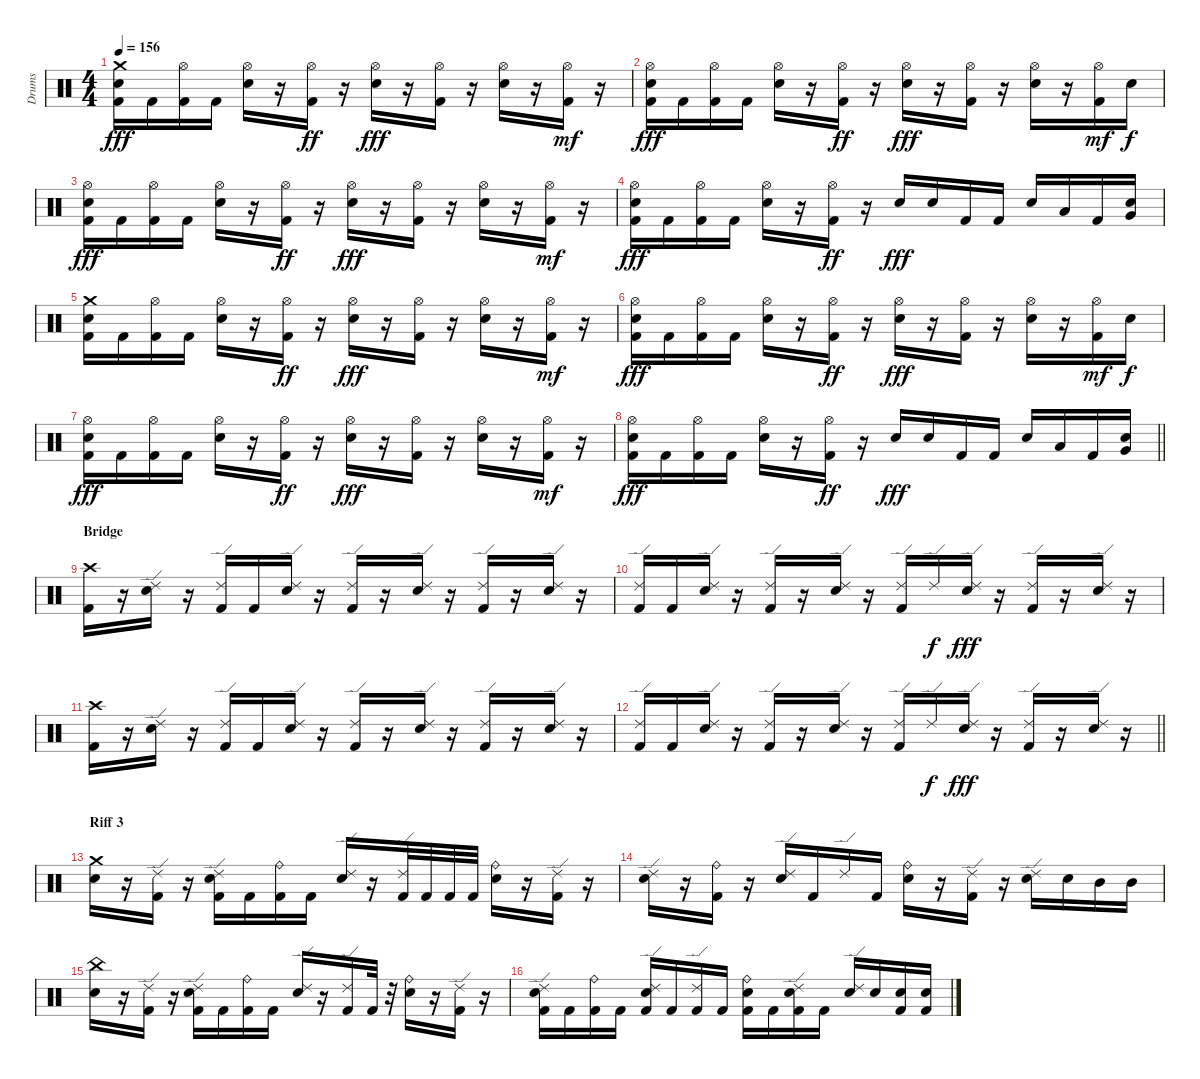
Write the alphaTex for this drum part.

\track ("Drums" "Drums") {instrument percussion}
\staff {score}
\articulation defaults
\ts (4 4)
\tempo 156
\clef neutral
\ks c
("Kick (hit) 2" "Snare (hit) 2" "Crash medium (hit)").16{dy fff} "Kick (hit) 2".16 ("Kick (hit) 2" "Hi-Hat (open)").16 "Kick (hit) 2".16 ("Snare (hit) 2" "Hi-Hat (open)").16 r.16 ("Kick (hit) 2" "Hi-Hat (open)").16{dy ff} r.16 ("Snare (hit) 2" "Hi-Hat (open)").16{dy fff} r.16 ("Kick (hit) 2" "Hi-Hat (open)").16 r.16 ("Snare (hit) 2" "Hi-Hat (open)").16 r.16 ("Kick (hit) 2" "Hi-Hat (open)").16{dy mf} r.16 |
("Kick (hit) 2" "Snare (hit) 2" "Hi-Hat (open)").16{dy fff} "Kick (hit) 2".16 ("Kick (hit) 2" "Hi-Hat (open)").16 "Kick (hit) 2".16 ("Snare (hit) 2" "Hi-Hat (open)").16 r.16 ("Kick (hit) 2" "Hi-Hat (open)").16{dy ff} r.16 ("Snare (hit) 2" "Hi-Hat (open)").16{dy fff} r.16 ("Kick (hit) 2" "Hi-Hat (open)").16 r.16 ("Snare (hit) 2" "Hi-Hat (open)").16 r.16 ("Kick (hit) 2" "Hi-Hat (open)").16{dy mf} "Snare (hit) 2".16{dy f} |
("Kick (hit) 2" "Snare (hit) 2" "Hi-Hat (open)").16{dy fff} "Kick (hit) 2".16 ("Kick (hit) 2" "Hi-Hat (open)").16 "Kick (hit) 2".16 ("Snare (hit) 2" "Hi-Hat (open)").16 r.16 ("Kick (hit) 2" "Hi-Hat (open)").16{dy ff} r.16 ("Snare (hit) 2" "Hi-Hat (open)").16{dy fff} r.16 ("Kick (hit) 2" "Hi-Hat (open)").16 r.16 ("Snare (hit) 2" "Hi-Hat (open)").16 r.16 ("Kick (hit) 2" "Hi-Hat (open)").16{dy mf} r.16 |
("Kick (hit) 2" "Snare (hit) 2" "Hi-Hat (open)").16{dy fff} "Kick (hit) 2".16 ("Kick (hit) 2" "Hi-Hat (open)").16 "Kick (hit) 2".16 ("Snare (hit) 2" "Hi-Hat (open)").16 r.16 ("Kick (hit) 2" "Hi-Hat (open)").16{dy ff} r.16 "Snare (hit) 2".16{dy fff} "Snare (hit) 2".16 "Kick (hit) 2".16 "Kick (hit) 2".16 "Snare (hit) 2".16 "Low Tom (hit)".16 "Kick (hit) 2".16 ("Snare (hit) 2" "Very Low Tom (hit)").16 |
("Kick (hit) 2" "Snare (hit) 2" "Crash medium (hit)").16 "Kick (hit) 2".16 ("Kick (hit) 2" "Hi-Hat (open)").16 "Kick (hit) 2".16 ("Snare (hit) 2" "Hi-Hat (open)").16 r.16 ("Kick (hit) 2" "Hi-Hat (open)").16{dy ff} r.16 ("Snare (hit) 2" "Hi-Hat (open)").16{dy fff} r.16 ("Kick (hit) 2" "Hi-Hat (open)").16 r.16 ("Snare (hit) 2" "Hi-Hat (open)").16 r.16 ("Kick (hit) 2" "Hi-Hat (open)").16{dy mf} r.16 |
("Kick (hit) 2" "Snare (hit) 2" "Hi-Hat (open)").16{dy fff} "Kick (hit) 2".16 ("Kick (hit) 2" "Hi-Hat (open)").16 "Kick (hit) 2".16 ("Snare (hit) 2" "Hi-Hat (open)").16 r.16 ("Kick (hit) 2" "Hi-Hat (open)").16{dy ff} r.16 ("Snare (hit) 2" "Hi-Hat (open)").16{dy fff} r.16 ("Kick (hit) 2" "Hi-Hat (open)").16 r.16 ("Snare (hit) 2" "Hi-Hat (open)").16 r.16 ("Kick (hit) 2" "Hi-Hat (open)").16{dy mf} "Snare (hit) 2".16{dy f} |
("Kick (hit) 2" "Snare (hit) 2" "Hi-Hat (open)").16{dy fff} "Kick (hit) 2".16 ("Kick (hit) 2" "Hi-Hat (open)").16 "Kick (hit) 2".16 ("Snare (hit) 2" "Hi-Hat (open)").16 r.16 ("Kick (hit) 2" "Hi-Hat (open)").16{dy ff} r.16 ("Snare (hit) 2" "Hi-Hat (open)").16{dy fff} r.16 ("Kick (hit) 2" "Hi-Hat (open)").16 r.16 ("Snare (hit) 2" "Hi-Hat (open)").16 r.16 ("Kick (hit) 2" "Hi-Hat (open)").16{dy mf} r.16 |
\barLineRight lightlight
("Kick (hit) 2" "Snare (hit) 2" "Hi-Hat (open)").16{dy fff} "Kick (hit) 2".16 ("Kick (hit) 2" "Hi-Hat (open)").16 "Kick (hit) 2".16 ("Snare (hit) 2" "Hi-Hat (open)").16 r.16 ("Kick (hit) 2" "Hi-Hat (open)").16{dy ff} r.16 "Snare (hit) 2".16{dy fff} "Snare (hit) 2".16 "Kick (hit) 2".16 "Kick (hit) 2".16 "Snare (hit) 2".16 "Low Tom (hit)".16 "Kick (hit) 2".16 ("Snare (hit) 2" "Very Low Tom (hit)").16 |
\section ("" "Bridge")
("Kick (hit) 2" "Crash high (hit)").16 r.16 ("Snare (hit) 2" "Ride (edge) 2").16 r.16 ("Kick (hit) 2" "Ride (edge) 2").16 "Kick (hit) 2".16 ("Snare (hit) 2" "Ride (edge) 2").16 r.16 ("Kick (hit) 2" "Ride (edge) 2").16 r.16 ("Snare (hit) 2" "Ride (edge) 2").16 r.16 ("Kick (hit) 2" "Ride (edge) 2").16 r.16 ("Snare (hit) 2" "Ride (edge) 2").16 r.16 |
("Kick (hit) 2" "Ride (edge) 2").16 "Kick (hit) 2".16 ("Snare (hit) 2" "Ride (edge) 2").16 r.16 ("Kick (hit) 2" "Ride (edge) 2").16 r.16 ("Snare (hit) 2" "Ride (edge) 2").16 r.16 ("Kick (hit) 2" "Ride (edge) 2").16 "Ride (edge) 2".16{dy f} ("Snare (hit) 2" "Ride (edge) 2").16{dy fff} r.16 ("Kick (hit) 2" "Ride (edge) 2").16 r.16 ("Snare (hit) 2" "Ride (edge) 2").16 r.16 |
("Kick (hit) 2" "Crash high (hit)").16 r.16 ("Snare (hit) 2" "Ride (edge) 2").16 r.16 ("Kick (hit) 2" "Ride (edge) 2").16 "Kick (hit) 2".16 ("Snare (hit) 2" "Ride (edge) 2").16 r.16 ("Kick (hit) 2" "Ride (edge) 2").16 r.16 ("Snare (hit) 2" "Ride (edge) 2").16 r.16 ("Kick (hit) 2" "Ride (edge) 2").16 r.16 ("Snare (hit) 2" "Ride (edge) 2").16 r.16 |
\barLineRight lightlight
("Kick (hit) 2" "Ride (edge) 2").16 "Kick (hit) 2".16 ("Snare (hit) 2" "Ride (edge) 2").16 r.16 ("Kick (hit) 2" "Ride (edge) 2").16 r.16 ("Snare (hit) 2" "Ride (edge) 2").16 r.16 ("Kick (hit) 2" "Ride (edge) 2").16 "Ride (edge) 2".16{dy f} ("Snare (hit) 2" "Ride (edge) 2").16{dy fff} r.16 ("Kick (hit) 2" "Ride (edge) 2").16 r.16 ("Snare (hit) 2" "Ride (edge) 2").16 r.16 |
\section ("" "Riff 3")
("Snare (hit) 2" "Crash medium (hit)").16 r.16 ("Kick (hit) 2" "Ride (edge) 2").16 r.16 ("Kick (hit) 2" "Snare (hit) 2" "Ride (edge) 2").16 "Kick (hit) 2".16 ("Kick (hit) 2" "Ride (bell)").16 "Kick (hit) 2".16 ("Snare (hit) 2" "Ride (edge) 2").16 r.16 ("Kick (hit) 2" "Ride (edge) 2").32 "Kick (hit) 2".32 "Kick (hit) 2".32 "Kick (hit) 2".32 ("Snare (hit) 2" "Ride (bell)").16 r.16 ("Kick (hit) 2" "Ride (edge) 2").16 r.16 |
("Snare (hit) 2" "Ride (edge) 2").16 r.16 ("Kick (hit) 2" "Ride (bell)").16 r.16 ("Snare (hit) 2" "Ride (edge) 2").16 "Kick (hit) 2".16 "Ride (edge) 2".16 "Kick (hit) 2".16 ("Snare (hit) 2" "Ride (bell)").16 r.16 ("Kick (hit) 2" "Ride (edge) 2").16 r.16 ("Snare (hit) 2" "Ride (edge) 2").16 "Snare (hit) 2".16 "Mid Tom (hit)".16 "Mid Tom (hit)".16 |
("Snare (hit) 2" "China (hit)").16 r.16 ("Kick (hit) 2" "Ride (edge) 2").16 r.16 ("Kick (hit) 2" "Snare (hit) 2" "Ride (edge) 2").16 "Kick (hit) 2".16 ("Kick (hit) 2" "Ride (bell)").16 "Kick (hit) 2".16 ("Snare (hit) 2" "Ride (edge) 2").16 r.16 ("Kick (hit) 2" "Ride (edge) 2").16 "Kick (hit) 2".32 r.32 ("Snare (hit) 2" "Ride (bell)").16 r.16 ("Kick (hit) 2" "Ride (edge) 2").16 r.16 |
("Kick (hit) 2" "Snare (hit) 2" "Ride (edge) 2").16 "Kick (hit) 2".16 ("Kick (hit) 2" "Ride (bell)").16 "Kick (hit) 2".16 ("Kick (hit) 2" "Snare (hit) 2" "Ride (edge) 2").16 "Kick (hit) 2".16 ("Kick (hit) 2" "Ride (edge) 2").16 "Kick (hit) 2".16 ("Kick (hit) 2" "Snare (hit) 2" "Ride (bell)").16 "Kick (hit) 2".16 ("Kick (hit) 2" "Snare (hit) 2" "Ride (edge) 2").16 "Kick (hit) 2".16 ("Snare (hit) 2" "Ride (edge) 2").16 "Snare (hit) 2".16 ("Kick (hit) 2" "Snare (hit) 2").16 ("Kick (hit) 2" "Snare (hit) 2").16
